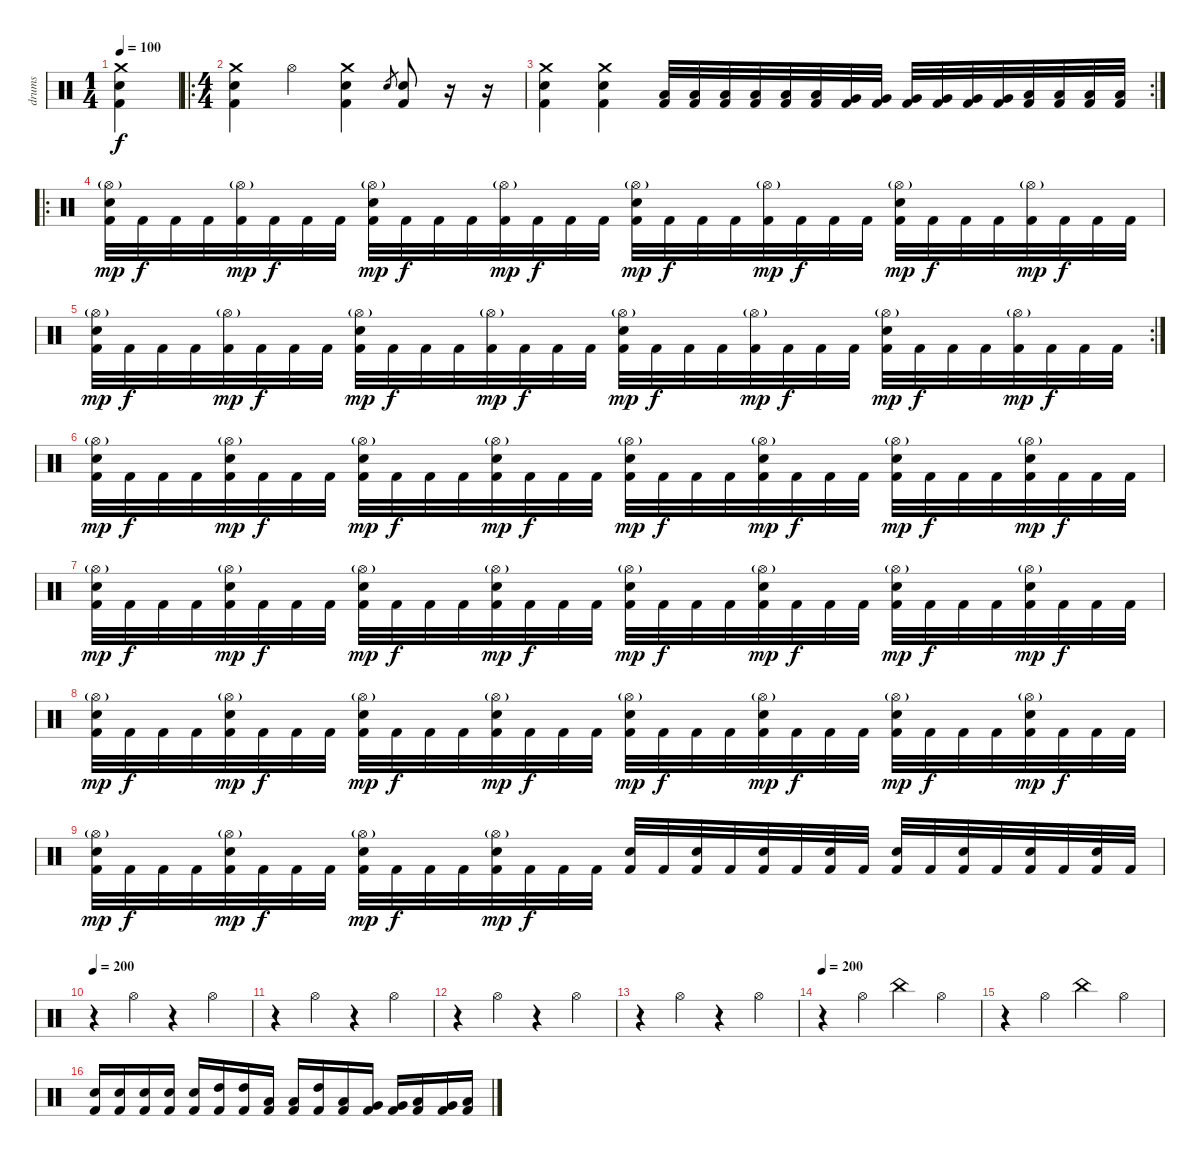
\track ("drums" "drums") {instrument percussion}
\staff {score}
\articulation defaults
\ts (1 4)
\tempo 100
\clef neutral
\ks c
("Crash medium (hit)" "Electric Snare (hit)" "Kick (hit) 2").4{dy f} |
\ro
\ts (4 4)
("Crash medium (hit)" "Electric Snare (hit)" "Kick (hit) 2").4 "Hi-Hat (open)".4 ("Crash medium (hit)" "Electric Snare (hit)" "Kick (hit) 2").4 "Electric Snare (hit)".8{gr} ("Electric Snare (hit)" "Kick (hit) 2").8 r.16 r.16 |
\rc 2
("Crash medium (hit)" "Electric Snare (hit)" "Kick (hit) 2").4 ("Crash medium (hit)" "Electric Snare (hit)" "Kick (hit) 2").4 ("Low Tom (hit)" "Kick (hit) 2").32 ("Low Tom (hit)" "Kick (hit) 2").32 ("Low Tom (hit)" "Kick (hit) 2").32 ("Low Tom (hit)" "Kick (hit) 2").32 ("Low Tom (hit)" "Kick (hit) 2").32 ("Low Tom (hit)" "Kick (hit) 2").32 ("Very Low Tom (hit)" "Kick (hit) 2").32 ("Very Low Tom (hit)" "Kick (hit) 2").32 ("Very Low Tom (hit)" "Kick (hit) 2").32 ("Very Low Tom (hit)" "Kick (hit) 2").32 ("Very Low Tom (hit)" "Kick (hit) 2").32 ("Very Low Tom (hit)" "Kick (hit) 2").32 ("Low Floor Tom (hit)" "Kick (hit) 2").32 ("Low Floor Tom (hit)" "Kick (hit) 2").32 ("Low Floor Tom (hit)" "Kick (hit) 2").32 ("Low Floor Tom (hit)" "Kick (hit) 2").32 |
\ro
("Hi-Hat (open)"{g} "Electric Snare (hit)" "Kick (hit) 2").32{dy mp} "Kick (hit) 2".32{dy f} "Kick (hit) 2".32 "Kick (hit) 2".32 ("Hi-Hat (open)"{g} "Kick (hit) 2").32{dy mp} "Kick (hit) 2".32{dy f} "Kick (hit) 2".32 "Kick (hit) 2".32 ("Hi-Hat (open)"{g} "Electric Snare (hit)" "Kick (hit) 2").32{dy mp} "Kick (hit) 2".32{dy f} "Kick (hit) 2".32 "Kick (hit) 2".32 ("Hi-Hat (open)"{g} "Kick (hit) 2").32{dy mp} "Kick (hit) 2".32{dy f} "Kick (hit) 2".32 "Kick (hit) 2".32 ("Hi-Hat (open)"{g} "Electric Snare (hit)" "Kick (hit) 2").32{dy mp} "Kick (hit) 2".32{dy f} "Kick (hit) 2".32 "Kick (hit) 2".32 ("Hi-Hat (open)"{g} "Kick (hit) 2").32{dy mp} "Kick (hit) 2".32{dy f} "Kick (hit) 2".32 "Kick (hit) 2".32 ("Hi-Hat (open)"{g} "Electric Snare (hit)" "Kick (hit) 2").32{dy mp} "Kick (hit) 2".32{dy f} "Kick (hit) 2".32 "Kick (hit) 2".32 ("Hi-Hat (open)"{g} "Kick (hit) 2").32{dy mp} "Kick (hit) 2".32{dy f} "Kick (hit) 2".32 "Kick (hit) 2".32 |
\rc 2
("Hi-Hat (open)"{g} "Electric Snare (hit)" "Kick (hit) 2").32{dy mp} "Kick (hit) 2".32{dy f} "Kick (hit) 2".32 "Kick (hit) 2".32 ("Hi-Hat (open)"{g} "Kick (hit) 2").32{dy mp} "Kick (hit) 2".32{dy f} "Kick (hit) 2".32 "Kick (hit) 2".32 ("Hi-Hat (open)"{g} "Electric Snare (hit)" "Kick (hit) 2").32{dy mp} "Kick (hit) 2".32{dy f} "Kick (hit) 2".32 "Kick (hit) 2".32 ("Hi-Hat (open)"{g} "Kick (hit) 2").32{dy mp} "Kick (hit) 2".32{dy f} "Kick (hit) 2".32 "Kick (hit) 2".32 ("Hi-Hat (open)"{g} "Electric Snare (hit)" "Kick (hit) 2").32{dy mp} "Kick (hit) 2".32{dy f} "Kick (hit) 2".32 "Kick (hit) 2".32 ("Hi-Hat (open)"{g} "Kick (hit) 2").32{dy mp} "Kick (hit) 2".32{dy f} "Kick (hit) 2".32 "Kick (hit) 2".32 ("Hi-Hat (open)"{g} "Electric Snare (hit)" "Kick (hit) 2").32{dy mp} "Kick (hit) 2".32{dy f} "Kick (hit) 2".32 "Kick (hit) 2".32 ("Hi-Hat (open)"{g} "Kick (hit) 2").32{dy mp} "Kick (hit) 2".32{dy f} "Kick (hit) 2".32 "Kick (hit) 2".32 |
("Hi-Hat (open)"{g} "Electric Snare (hit)" "Kick (hit) 2").32{dy mp} "Kick (hit) 2".32{dy f} "Kick (hit) 2".32 "Kick (hit) 2".32 ("Hi-Hat (open)"{g} "Electric Snare (hit)" "Kick (hit) 2").32{dy mp} "Kick (hit) 2".32{dy f} "Kick (hit) 2".32 "Kick (hit) 2".32 ("Hi-Hat (open)"{g} "Electric Snare (hit)" "Kick (hit) 2").32{dy mp} "Kick (hit) 2".32{dy f} "Kick (hit) 2".32 "Kick (hit) 2".32 ("Hi-Hat (open)"{g} "Electric Snare (hit)" "Kick (hit) 2").32{dy mp} "Kick (hit) 2".32{dy f} "Kick (hit) 2".32 "Kick (hit) 2".32 ("Hi-Hat (open)"{g} "Electric Snare (hit)" "Kick (hit) 2").32{dy mp} "Kick (hit) 2".32{dy f} "Kick (hit) 2".32 "Kick (hit) 2".32 ("Hi-Hat (open)"{g} "Electric Snare (hit)" "Kick (hit) 2").32{dy mp} "Kick (hit) 2".32{dy f} "Kick (hit) 2".32 "Kick (hit) 2".32 ("Hi-Hat (open)"{g} "Electric Snare (hit)" "Kick (hit) 2").32{dy mp} "Kick (hit) 2".32{dy f} "Kick (hit) 2".32 "Kick (hit) 2".32 ("Hi-Hat (open)"{g} "Electric Snare (hit)" "Kick (hit) 2").32{dy mp} "Kick (hit) 2".32{dy f} "Kick (hit) 2".32 "Kick (hit) 2".32 |
("Hi-Hat (open)"{g} "Electric Snare (hit)" "Kick (hit) 2").32{dy mp} "Kick (hit) 2".32{dy f} "Kick (hit) 2".32 "Kick (hit) 2".32 ("Hi-Hat (open)"{g} "Electric Snare (hit)" "Kick (hit) 2").32{dy mp} "Kick (hit) 2".32{dy f} "Kick (hit) 2".32 "Kick (hit) 2".32 ("Hi-Hat (open)"{g} "Electric Snare (hit)" "Kick (hit) 2").32{dy mp} "Kick (hit) 2".32{dy f} "Kick (hit) 2".32 "Kick (hit) 2".32 ("Hi-Hat (open)"{g} "Electric Snare (hit)" "Kick (hit) 2").32{dy mp} "Kick (hit) 2".32{dy f} "Kick (hit) 2".32 "Kick (hit) 2".32 ("Hi-Hat (open)"{g} "Electric Snare (hit)" "Kick (hit) 2").32{dy mp} "Kick (hit) 2".32{dy f} "Kick (hit) 2".32 "Kick (hit) 2".32 ("Hi-Hat (open)"{g} "Electric Snare (hit)" "Kick (hit) 2").32{dy mp} "Kick (hit) 2".32{dy f} "Kick (hit) 2".32 "Kick (hit) 2".32 ("Hi-Hat (open)"{g} "Electric Snare (hit)" "Kick (hit) 2").32{dy mp} "Kick (hit) 2".32{dy f} "Kick (hit) 2".32 "Kick (hit) 2".32 ("Hi-Hat (open)"{g} "Electric Snare (hit)" "Kick (hit) 2").32{dy mp} "Kick (hit) 2".32{dy f} "Kick (hit) 2".32 "Kick (hit) 2".32 |
("Hi-Hat (open)"{g} "Electric Snare (hit)" "Kick (hit) 2").32{dy mp} "Kick (hit) 2".32{dy f} "Kick (hit) 2".32 "Kick (hit) 2".32 ("Hi-Hat (open)"{g} "Electric Snare (hit)" "Kick (hit) 2").32{dy mp} "Kick (hit) 2".32{dy f} "Kick (hit) 2".32 "Kick (hit) 2".32 ("Hi-Hat (open)"{g} "Electric Snare (hit)" "Kick (hit) 2").32{dy mp} "Kick (hit) 2".32{dy f} "Kick (hit) 2".32 "Kick (hit) 2".32 ("Hi-Hat (open)"{g} "Electric Snare (hit)" "Kick (hit) 2").32{dy mp} "Kick (hit) 2".32{dy f} "Kick (hit) 2".32 "Kick (hit) 2".32 ("Hi-Hat (open)"{g} "Electric Snare (hit)" "Kick (hit) 2").32{dy mp} "Kick (hit) 2".32{dy f} "Kick (hit) 2".32 "Kick (hit) 2".32 ("Hi-Hat (open)"{g} "Electric Snare (hit)" "Kick (hit) 2").32{dy mp} "Kick (hit) 2".32{dy f} "Kick (hit) 2".32 "Kick (hit) 2".32 ("Hi-Hat (open)"{g} "Electric Snare (hit)" "Kick (hit) 2").32{dy mp} "Kick (hit) 2".32{dy f} "Kick (hit) 2".32 "Kick (hit) 2".32 ("Hi-Hat (open)"{g} "Electric Snare (hit)" "Kick (hit) 2").32{dy mp} "Kick (hit) 2".32{dy f} "Kick (hit) 2".32 "Kick (hit) 2".32 |
("Hi-Hat (open)"{g} "Electric Snare (hit)" "Kick (hit) 2").32{dy mp} "Kick (hit) 2".32{dy f} "Kick (hit) 2".32 "Kick (hit) 2".32 ("Hi-Hat (open)"{g} "Electric Snare (hit)" "Kick (hit) 2").32{dy mp} "Kick (hit) 2".32{dy f} "Kick (hit) 2".32 "Kick (hit) 2".32 ("Hi-Hat (open)"{g} "Electric Snare (hit)" "Kick (hit) 2").32{dy mp} "Kick (hit) 2".32{dy f} "Kick (hit) 2".32 "Kick (hit) 2".32 ("Hi-Hat (open)"{g} "Electric Snare (hit)" "Kick (hit) 2").32{dy mp} "Kick (hit) 2".32{dy f} "Kick (hit) 2".32 "Kick (hit) 2".32 ("Electric Snare (hit)" "Kick (hit) 2").32 "Kick (hit) 2".32 ("Electric Snare (hit)" "Kick (hit) 2").32 "Kick (hit) 2".32 ("Electric Snare (hit)" "Kick (hit) 2").32 "Kick (hit) 2".32 ("Electric Snare (hit)" "Kick (hit) 2").32 "Kick (hit) 2".32 ("Electric Snare (hit)" "Kick (hit) 2").32 "Kick (hit) 2".32 ("Electric Snare (hit)" "Kick (hit) 2").32 "Kick (hit) 2".32 ("Electric Snare (hit)" "Kick (hit) 2").32 "Kick (hit) 2".32 ("Electric Snare (hit)" "Kick (hit) 2").32 "Kick (hit) 2".32 |
\tempo 200
r.4 "Hi-Hat (open)".4 r.4 "Hi-Hat (open)".4 |
r.4 "Hi-Hat (open)".4 r.4 "Hi-Hat (open)".4 |
r.4 "Hi-Hat (open)".4 r.4 "Hi-Hat (open)".4 |
r.4 "Hi-Hat (open)".4 r.4 "Hi-Hat (open)".4 |
\tempo 200
r.4 "Hi-Hat (open)".4 "China (hit)".4 "Hi-Hat (open)".4 |
r.4 "Hi-Hat (open)".4 "China (hit)".4 "Hi-Hat (open)".4 |
("Electric Snare (hit)" "Kick (hit) 2").16 ("Electric Snare (hit)" "Kick (hit) 2").16 ("Electric Snare (hit)" "Kick (hit) 2").16 ("Electric Snare (hit)" "Kick (hit) 2").16 ("Electric Snare (hit)" "Kick (hit) 2").16 ("High Tom (hit)" "Kick (hit) 2").16 ("High Tom (hit)" "Kick (hit) 2").16 ("Low Tom (hit)" "Kick (hit) 2").16 ("Low Tom (hit)" "Kick (hit) 2").16 ("High Tom (hit)" "Kick (hit) 2").16 ("Low Tom (hit)" "Kick (hit) 2").16 ("Very Low Tom (hit)" "Kick (hit) 2").16 ("Very Low Tom (hit)" "Kick (hit) 2").16 ("Low Tom (hit)" "Kick (hit) 2").16 ("Very Low Tom (hit)" "Kick (hit) 2").16 ("Low Floor Tom (hit)" "Kick (hit) 2").16
